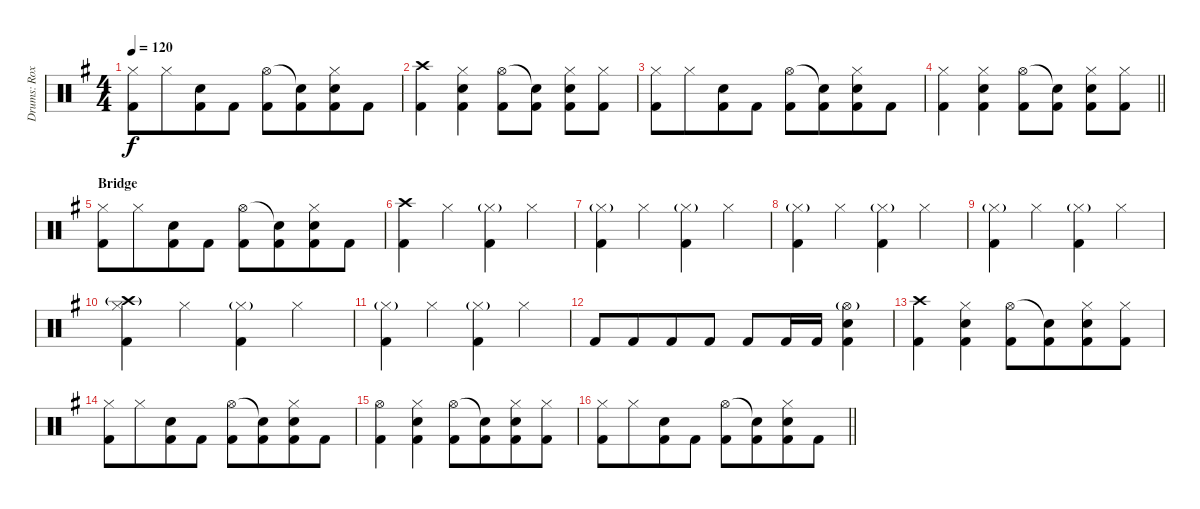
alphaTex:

\track ("Drums: Roxy" "Drums: Rox") {instrument percussion}
\staff {score}
\articulation defaults
\ts (4 4)
\tempo 120
\clef neutral
\ks g
("Hi-Hat (closed)" "Kick (hit) 2").8{dy f} "Hi-Hat (closed)".8{beam merge} ("Snare (hit) 2" "Kick (hit) 2").8 "Kick (hit) 2".8 ("Hi-Hat (open)" "Kick (hit) 2").8 ("Snare (hit)"{t} "Kick (hit) 2").8{beam merge} ("Hi-Hat (closed)" "Snare (hit) 2" "Kick (hit) 2").8 "Kick (hit) 2".8 |
("Crash high (hit)" "Kick (hit) 2").4 ("Hi-Hat (closed)" "Snare (hit) 2" "Kick (hit) 2").4 ("Hi-Hat (open)" "Kick (hit) 2").8 ("Snare (hit)"{t} "Kick (hit) 2").8 ("Hi-Hat (closed)" "Snare (hit) 2" "Kick (hit) 2").8 ("Hi-Hat (closed)" "Kick (hit) 2").8 |
("Hi-Hat (closed)" "Kick (hit) 2").8 "Hi-Hat (closed)".8{beam merge} ("Snare (hit) 2" "Kick (hit) 2").8 "Kick (hit) 2".8 ("Hi-Hat (open)" "Kick (hit) 2").8 ("Snare (hit)"{t} "Kick (hit) 2").8{beam merge} ("Hi-Hat (closed)" "Snare (hit) 2" "Kick (hit) 2").8 "Kick (hit) 2".8 |
\barLineRight lightlight
("Hi-Hat (closed)" "Kick (hit) 2").4 ("Hi-Hat (closed)" "Snare (hit) 2" "Kick (hit) 2").4 ("Hi-Hat (open)" "Kick (hit) 2").8 ("Snare (hit)"{t} "Kick (hit) 2").8 ("Hi-Hat (closed)" "Snare (hit) 2" "Kick (hit) 2").8 ("Hi-Hat (closed)" "Kick (hit) 2").8 |
\section ("" "Bridge")
("Hi-Hat (closed)" "Kick (hit) 2").8 "Hi-Hat (closed)".8{beam merge} ("Snare (hit) 2" "Kick (hit) 2").8 "Kick (hit) 2".8 ("Hi-Hat (open)" "Kick (hit) 2").8 ("Snare (hit)"{t} "Kick (hit) 2").8{beam merge} ("Hi-Hat (closed)" "Snare (hit) 2" "Kick (hit) 2").8 "Kick (hit) 2".8 |
("Crash high (hit)" "Kick (hit) 2").4 "Hi-Hat (closed)".4 ("Hi-Hat (closed)"{g} "Kick (hit) 2").4 "Hi-Hat (closed)".4 |
("Hi-Hat (closed)"{g} "Kick (hit) 2").4 "Hi-Hat (closed)".4 ("Hi-Hat (closed)"{g} "Kick (hit) 2").4 "Hi-Hat (closed)".4 |
("Hi-Hat (closed)"{g} "Kick (hit) 2").4 "Hi-Hat (closed)".4 ("Hi-Hat (closed)"{g} "Kick (hit) 2").4 "Hi-Hat (closed)".4 |
("Hi-Hat (closed)"{g} "Kick (hit) 2").4 "Hi-Hat (closed)".4 ("Hi-Hat (closed)"{g} "Kick (hit) 2").4 "Hi-Hat (closed)".4 |
("Crash high (hit)"{g} "Hi-Hat (closed)" "Kick (hit) 2").4 "Hi-Hat (closed)".4 ("Hi-Hat (closed)"{g} "Kick (hit) 2").4 "Hi-Hat (closed)".4 |
("Hi-Hat (closed)"{g} "Kick (hit) 2").4 "Hi-Hat (closed)".4 ("Hi-Hat (closed)"{g} "Kick (hit) 2").4 "Hi-Hat (closed)".4 |
"Kick (hit) 2".8 "Kick (hit) 2".8{beam merge} "Kick (hit) 2".8 "Kick (hit) 2".8 "Kick (hit) 2".8 "Kick (hit) 2".16{beam merge} "Kick (hit) 2".16 ("Hi-Hat (open)"{g} "Snare (hit) 2" "Kick (hit) 2").4 |
("Crash high (hit)" "Kick (hit) 2").4 ("Hi-Hat (closed)" "Snare (hit) 2" "Kick (hit) 2").4 ("Hi-Hat (open)" "Kick (hit) 2").8 ("Snare (hit)"{t} "Kick (hit) 2").8{beam merge} ("Hi-Hat (closed)" "Snare (hit) 2" "Kick (hit) 2").8 ("Hi-Hat (closed)" "Kick (hit) 2").8 |
("Hi-Hat (closed)" "Kick (hit) 2").8 "Hi-Hat (closed)".8{beam merge} ("Snare (hit) 2" "Kick (hit) 2").8 "Kick (hit) 2".8 ("Hi-Hat (open)" "Kick (hit) 2").8 ("Snare (hit)"{t} "Kick (hit) 2").8{beam merge} ("Hi-Hat (closed)" "Snare (hit) 2" "Kick (hit) 2").8 "Kick (hit) 2".8 |
("Hi-Hat (open)" "Kick (hit) 2").4 ("Hi-Hat (closed)" "Snare (hit) 2" "Kick (hit) 2").4 ("Hi-Hat (open)" "Kick (hit) 2").8 ("Snare (hit)"{t} "Kick (hit) 2").8{beam merge} ("Hi-Hat (closed)" "Snare (hit) 2" "Kick (hit) 2").8 ("Hi-Hat (closed)" "Kick (hit) 2").8 |
\barLineRight lightlight
("Hi-Hat (closed)" "Kick (hit) 2").8 "Hi-Hat (closed)".8{beam merge} ("Snare (hit) 2" "Kick (hit) 2").8 "Kick (hit) 2".8 ("Hi-Hat (open)" "Kick (hit) 2").8 ("Snare (hit)"{t} "Kick (hit) 2").8{beam merge} ("Hi-Hat (closed)" "Snare (hit) 2" "Kick (hit) 2").8 "Kick (hit) 2".8
